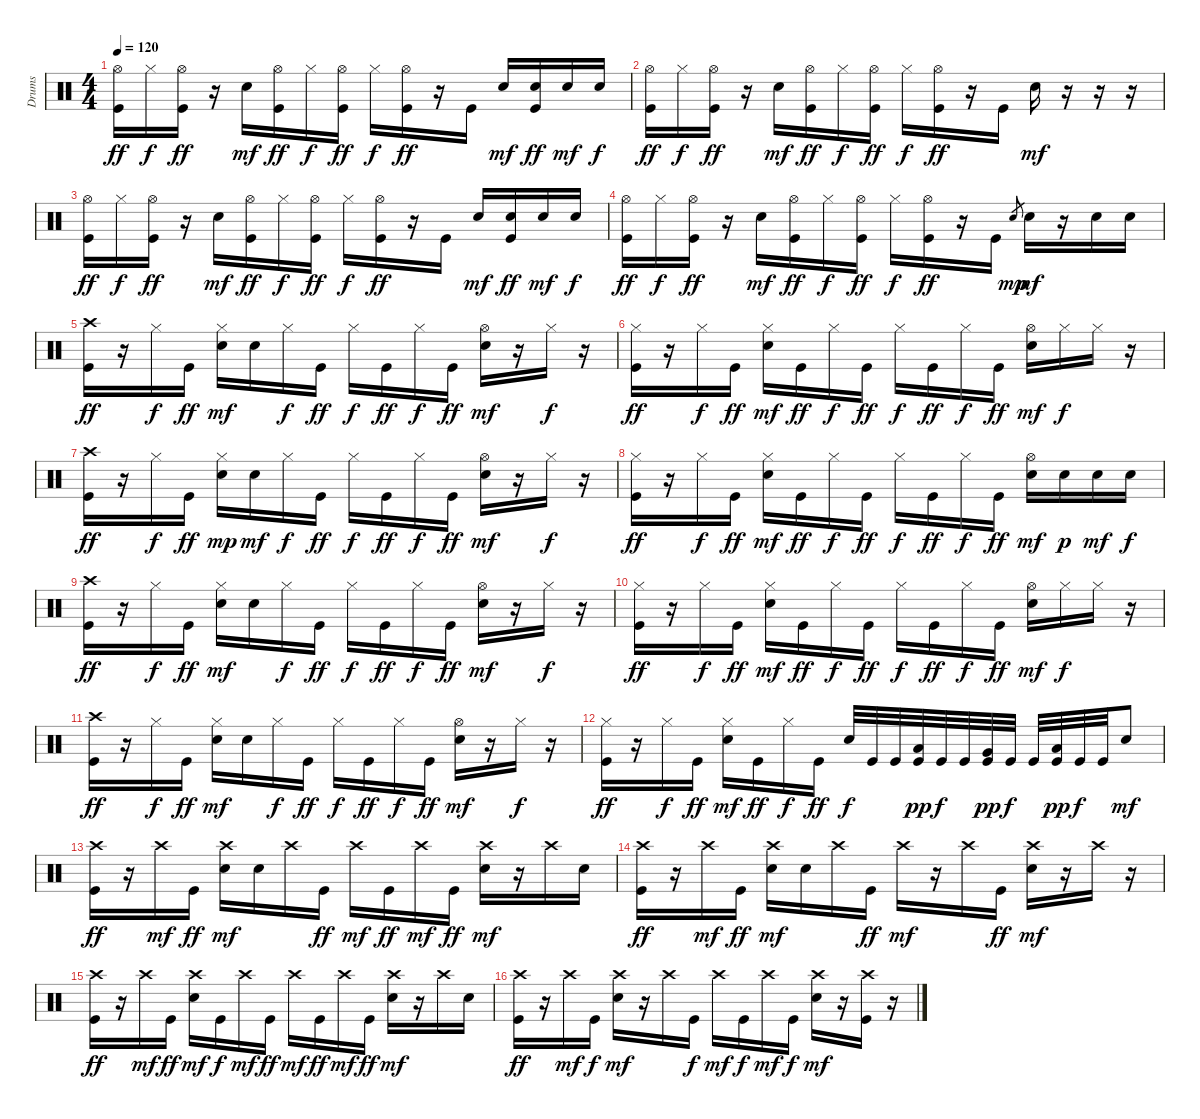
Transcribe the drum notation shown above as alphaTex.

\track ("Drums" "Drums") {instrument percussion}
\staff {score}
\articulation defaults
\ts (4 4)
\tempo 120
\clef neutral
\ks c
("Hi-Hat (open)" "Kick (hit)").16{dy ff} "Hi-Hat (closed)".16{dy f} ("Hi-Hat (open)" "Kick (hit)").16{dy ff} r.16 "Metronome (bell)".16{dy mf} ("Hi-Hat (open)" "Kick (hit)").16{dy ff} "Hi-Hat (closed)".16{dy f} ("Hi-Hat (open)" "Kick (hit)").16{dy ff} "Hi-Hat (closed)".16{dy f} ("Hi-Hat (open)" "Kick (hit)").16{dy ff} r.16 "Kick (hit)".16 "Metronome (bell)".16{dy mf} ("Metronome (bell)" "Kick (hit)").16{dy ff} "Metronome (bell)".16{dy mf} "Metronome (bell)".16{dy f} |
("Hi-Hat (open)" "Kick (hit)").16{dy ff} "Hi-Hat (closed)".16{dy f} ("Hi-Hat (open)" "Kick (hit)").16{dy ff} r.16 "Metronome (bell)".16{dy mf} ("Hi-Hat (open)" "Kick (hit)").16{dy ff} "Hi-Hat (closed)".16{dy f} ("Hi-Hat (open)" "Kick (hit)").16{dy ff} "Hi-Hat (closed)".16{dy f} ("Hi-Hat (open)" "Kick (hit)").16{dy ff} r.16 "Kick (hit)".16 "Metronome (bell)".16{dy mf} r.16 r.16 r.16 |
("Hi-Hat (open)" "Kick (hit)").16{dy ff} "Hi-Hat (closed)".16{dy f} ("Hi-Hat (open)" "Kick (hit)").16{dy ff} r.16 "Metronome (bell)".16{dy mf} ("Hi-Hat (open)" "Kick (hit)").16{dy ff} "Hi-Hat (closed)".16{dy f} ("Hi-Hat (open)" "Kick (hit)").16{dy ff} "Hi-Hat (closed)".16{dy f} ("Hi-Hat (open)" "Kick (hit)").16{dy ff} r.16 "Kick (hit)".16 "Metronome (bell)".16{dy mf} ("Metronome (bell)" "Kick (hit)").16{dy ff} "Metronome (bell)".16{dy mf} "Metronome (bell)".16{dy f} |
("Hi-Hat (open)" "Kick (hit)").16{dy ff} "Hi-Hat (closed)".16{dy f} ("Hi-Hat (open)" "Kick (hit)").16{dy ff} r.16 "Metronome (bell)".16{dy mf} ("Hi-Hat (open)" "Kick (hit)").16{dy ff} "Hi-Hat (closed)".16{dy f} ("Hi-Hat (open)" "Kick (hit)").16{dy ff} "Hi-Hat (closed)".16{dy f} ("Hi-Hat (open)" "Kick (hit)").16{dy ff} r.16 "Kick (hit)".16 "Metronome (bell)".8{gr dy mp} "Metronome (bell)".16{dy mf} r.16 "Metronome (bell)".16 "Metronome (bell)".16 |
("Crash high (hit)" "Kick (hit)").16{dy ff} r.16 "Hi-Hat (closed)".16{dy f} "Kick (hit)".16{dy ff} ("Hi-Hat (closed)" "Metronome (bell)").16{dy mf} "Metronome (bell)".16 "Hi-Hat (closed)".16{dy f} "Kick (hit)".16{dy ff} "Hi-Hat (closed)".16{dy f} "Kick (hit)".16{dy ff} "Hi-Hat (closed)".16{dy f} "Kick (hit)".16{dy ff} ("Hi-Hat (open)" "Metronome (bell)").16{dy mf} r.16 "Hi-Hat (closed)".16{dy f} r.16 |
("Hi-Hat (closed)" "Kick (hit)").16{dy ff} r.16 "Hi-Hat (closed)".16{dy f} "Kick (hit)".16{dy ff} ("Hi-Hat (closed)" "Metronome (bell)").16{dy mf} "Kick (hit)".16{dy ff} "Hi-Hat (closed)".16{dy f} "Kick (hit)".16{dy ff} "Hi-Hat (closed)".16{dy f} "Kick (hit)".16{dy ff} "Hi-Hat (closed)".16{dy f} "Kick (hit)".16{dy ff} ("Hi-Hat (open)" "Metronome (bell)").16{dy mf} "Hi-Hat (closed)".16{dy f} "Hi-Hat (closed)".16 r.16 |
("Crash high (hit)" "Kick (hit)").16{dy ff} r.16 "Hi-Hat (closed)".16{dy f} "Kick (hit)".16{dy ff} ("Hi-Hat (closed)" "Metronome (bell)").16{dy mp} "Metronome (bell)".16{dy mf} "Hi-Hat (closed)".16{dy f} "Kick (hit)".16{dy ff} "Hi-Hat (closed)".16{dy f} "Kick (hit)".16{dy ff} "Hi-Hat (closed)".16{dy f} "Kick (hit)".16{dy ff} ("Hi-Hat (open)" "Metronome (bell)").16{dy mf} r.16 "Hi-Hat (closed)".16{dy f} r.16 |
("Hi-Hat (closed)" "Kick (hit)").16{dy ff} r.16 "Hi-Hat (closed)".16{dy f} "Kick (hit)".16{dy ff} ("Hi-Hat (closed)" "Metronome (bell)").16{dy mf} "Kick (hit)".16{dy ff} "Hi-Hat (closed)".16{dy f} "Kick (hit)".16{dy ff} "Hi-Hat (closed)".16{dy f} "Kick (hit)".16{dy ff} "Hi-Hat (closed)".16{dy f} "Kick (hit)".16{dy ff} ("Hi-Hat (open)" "Metronome (bell)").16{dy mf} "Metronome (bell)".16{dy p} "Metronome (bell)".16{dy mf} "Metronome (bell)".16{dy f} |
("Crash high (hit)" "Kick (hit)").16{dy ff} r.16 "Hi-Hat (closed)".16{dy f} "Kick (hit)".16{dy ff} ("Hi-Hat (closed)" "Metronome (bell)").16{dy mf} "Metronome (bell)".16 "Hi-Hat (closed)".16{dy f} "Kick (hit)".16{dy ff} "Hi-Hat (closed)".16{dy f} "Kick (hit)".16{dy ff} "Hi-Hat (closed)".16{dy f} "Kick (hit)".16{dy ff} ("Hi-Hat (open)" "Metronome (bell)").16{dy mf} r.16 "Hi-Hat (closed)".16{dy f} r.16 |
("Hi-Hat (closed)" "Kick (hit)").16{dy ff} r.16 "Hi-Hat (closed)".16{dy f} "Kick (hit)".16{dy ff} ("Hi-Hat (closed)" "Metronome (bell)").16{dy mf} "Kick (hit)".16{dy ff} "Hi-Hat (closed)".16{dy f} "Kick (hit)".16{dy ff} "Hi-Hat (closed)".16{dy f} "Kick (hit)".16{dy ff} "Hi-Hat (closed)".16{dy f} "Kick (hit)".16{dy ff} ("Hi-Hat (open)" "Metronome (bell)").16{dy mf} "Hi-Hat (closed)".16{dy f} "Hi-Hat (closed)".16 r.16 |
("Crash high (hit)" "Kick (hit)").16{dy ff} r.16 "Hi-Hat (closed)".16{dy f} "Kick (hit)".16{dy ff} ("Hi-Hat (closed)" "Metronome (bell)").16{dy mf} "Metronome (bell)".16 "Hi-Hat (closed)".16{dy f} "Kick (hit)".16{dy ff} "Hi-Hat (closed)".16{dy f} "Kick (hit)".16{dy ff} "Hi-Hat (closed)".16{dy f} "Kick (hit)".16{dy ff} ("Hi-Hat (open)" "Metronome (bell)").16{dy mf} r.16 "Hi-Hat (closed)".16{dy f} r.16 |
("Hi-Hat (closed)" "Kick (hit)").16{dy ff} r.16 "Hi-Hat (closed)".16{dy f} "Kick (hit)".16{dy ff} ("Hi-Hat (closed)" "Metronome (bell)").16{dy mf} "Kick (hit)".16{dy ff} "Hi-Hat (closed)".16{dy f} "Kick (hit)".16{dy ff} "Metronome (bell)".32{dy f} "Kick (hit)".32 "Kick (hit)".32 ("Low Tom (hit)" "Kick (hit)").32{dy pp} "Kick (hit)".32{dy f} "Kick (hit)".32 ("Very Low Tom (hit)" "Kick (hit)").32{dy pp} "Kick (hit)".32{dy f} "Kick (hit)".32 ("Low Floor Tom (hit)" "Kick (hit)").32{dy pp} "Kick (hit)".32{dy f} "Kick (hit)".32 "Metronome (bell)".8{dy mf} |
("Crash high (hit)" "Kick (hit)").16{dy ff} r.16 "Crash high (hit)".16{dy mf} "Kick (hit)".16{dy ff} ("Crash high (hit)" "Metronome (bell)").16{dy mf} "Metronome (bell)".16 "Crash high (hit)".16 "Kick (hit)".16{dy ff} "Crash high (hit)".16{dy mf} "Kick (hit)".16{dy ff} "Crash high (hit)".16{dy mf} "Kick (hit)".16{dy ff} ("Crash high (hit)" "Metronome (bell)").16{dy mf} r.16 "Crash high (hit)".16 "Metronome (bell)".16 |
("Crash high (hit)" "Kick (hit)").16{dy ff} r.16 "Crash high (hit)".16{dy mf} "Kick (hit)".16{dy ff} ("Crash high (hit)" "Metronome (bell)").16{dy mf} "Metronome (bell)".16 "Crash high (hit)".16 "Kick (hit)".16{dy ff} "Crash high (hit)".16{dy mf} r.16 "Crash high (hit)".16 "Kick (hit)".16{dy ff} ("Crash high (hit)" "Metronome (bell)").16{dy mf} r.16 "Crash high (hit)".16 r.16 |
("Crash high (hit)" "Kick (hit)").16{dy ff} r.16 "Crash high (hit)".16{dy mf} "Kick (hit)".16{dy ff} ("Crash high (hit)" "Metronome (bell)").16{dy mf} "Kick (hit)".16{dy f} "Crash high (hit)".16{dy mf} "Kick (hit)".16{dy ff} "Crash high (hit)".16{dy mf} "Kick (hit)".16{dy ff} "Crash high (hit)".16{dy mf} "Kick (hit)".16{dy ff} ("Crash high (hit)" "Metronome (bell)").16{dy mf} r.16 "Crash high (hit)".16 "Metronome (bell)".16 |
("Crash high (hit)" "Kick (hit)").16{dy ff} r.16 "Crash high (hit)".16{dy mf} "Kick (hit)".16{dy f} ("Crash high (hit)" "Metronome (bell)").16{dy mf} r.16 "Crash high (hit)".16 "Kick (hit)".16{dy f} "Crash high (hit)".16{dy mf} "Kick (hit)".16{dy f} "Crash high (hit)".16{dy mf} "Kick (hit)".16{dy f} ("Crash high (hit)" "Metronome (bell)").16{dy mf} r.16 ("Crash high (hit)" "Kick (hit)").16 r.16
